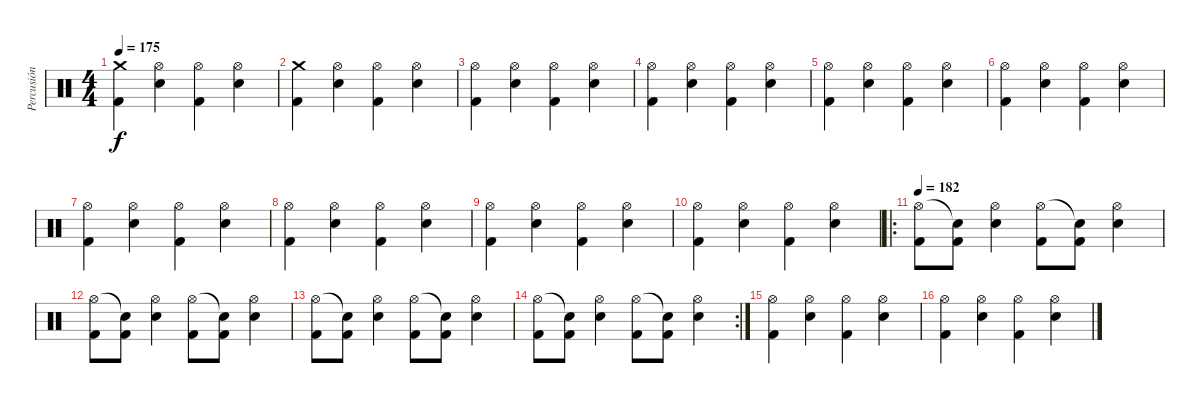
\track ("Percusión" "Percusión") {instrument percussion}
\staff {score}
\articulation defaults
\ts (4 4)
\tempo 175
\clef neutral
\ks c
("Kick (hit) 2" "Crash medium (hit)").4{dy f} ("Electric Snare (hit)" "Hi-Hat (open)").4 ("Kick (hit) 2" "Hi-Hat (open)").4 ("Electric Snare (hit)" "Hi-Hat (open)").4 |
("Kick (hit) 2" "Crash medium (hit)").4 ("Electric Snare (hit)" "Hi-Hat (open)").4 ("Kick (hit) 2" "Hi-Hat (open)").4 ("Electric Snare (hit)" "Hi-Hat (open)").4 |
("Kick (hit) 2" "Hi-Hat (open)").4 ("Electric Snare (hit)" "Hi-Hat (open)").4 ("Kick (hit) 2" "Hi-Hat (open)").4 ("Electric Snare (hit)" "Hi-Hat (open)").4 |
("Kick (hit) 2" "Hi-Hat (open)").4 ("Electric Snare (hit)" "Hi-Hat (open)").4 ("Kick (hit) 2" "Hi-Hat (open)").4 ("Electric Snare (hit)" "Hi-Hat (open)").4 |
("Kick (hit) 2" "Hi-Hat (open)").4 ("Electric Snare (hit)" "Hi-Hat (open)").4 ("Kick (hit) 2" "Hi-Hat (open)").4 ("Electric Snare (hit)" "Hi-Hat (open)").4 |
("Kick (hit) 2" "Hi-Hat (open)").4 ("Electric Snare (hit)" "Hi-Hat (open)").4 ("Kick (hit) 2" "Hi-Hat (open)").4 ("Electric Snare (hit)" "Hi-Hat (open)").4 |
("Kick (hit) 2" "Hi-Hat (open)").4 ("Electric Snare (hit)" "Hi-Hat (open)").4 ("Kick (hit) 2" "Hi-Hat (open)").4 ("Electric Snare (hit)" "Hi-Hat (open)").4 |
("Kick (hit) 2" "Hi-Hat (open)").4 ("Electric Snare (hit)" "Hi-Hat (open)").4 ("Kick (hit) 2" "Hi-Hat (open)").4 ("Electric Snare (hit)" "Hi-Hat (open)").4 |
("Kick (hit) 2" "Hi-Hat (open)").4 ("Electric Snare (hit)" "Hi-Hat (open)").4 ("Kick (hit) 2" "Hi-Hat (open)").4 ("Electric Snare (hit)" "Hi-Hat (open)").4 |
("Kick (hit) 2" "Hi-Hat (open)").4 ("Electric Snare (hit)" "Hi-Hat (open)").4 ("Kick (hit) 2" "Hi-Hat (open)").4 ("Electric Snare (hit)" "Hi-Hat (open)").4 |
\ro
\tempo 182
("Kick (hit) 2" "Hi-Hat (open)").8 ("Kick (hit) 2" "Snare (hit)"{t}).8 ("Electric Snare (hit)" "Hi-Hat (open)").4 ("Kick (hit) 2" "Hi-Hat (open)").8 ("Kick (hit) 2" "Snare (hit)"{t}).8 ("Electric Snare (hit)" "Hi-Hat (open)").4 |
("Kick (hit) 2" "Hi-Hat (open)").8 ("Kick (hit) 2" "Snare (hit)"{t}).8 ("Electric Snare (hit)" "Hi-Hat (open)").4 ("Kick (hit) 2" "Hi-Hat (open)").8 ("Kick (hit) 2" "Snare (hit)"{t}).8 ("Electric Snare (hit)" "Hi-Hat (open)").4 |
("Kick (hit) 2" "Hi-Hat (open)").8 ("Kick (hit) 2" "Snare (hit)"{t}).8 ("Electric Snare (hit)" "Hi-Hat (open)").4 ("Kick (hit) 2" "Hi-Hat (open)").8 ("Kick (hit) 2" "Snare (hit)"{t}).8 ("Electric Snare (hit)" "Hi-Hat (open)").4 |
\rc 2
("Kick (hit) 2" "Hi-Hat (open)").8 ("Kick (hit) 2" "Snare (hit)"{t}).8 ("Electric Snare (hit)" "Hi-Hat (open)").4 ("Kick (hit) 2" "Hi-Hat (open)").8 ("Kick (hit) 2" "Snare (hit)"{t}).8 ("Electric Snare (hit)" "Hi-Hat (open)").4 |
("Kick (hit) 2" "Hi-Hat (open)").4 ("Electric Snare (hit)" "Hi-Hat (open)").4 ("Kick (hit) 2" "Hi-Hat (open)").4 ("Electric Snare (hit)" "Hi-Hat (open)").4 |
("Kick (hit) 2" "Hi-Hat (open)").4 ("Electric Snare (hit)" "Hi-Hat (open)").4 ("Kick (hit) 2" "Hi-Hat (open)").4 ("Electric Snare (hit)" "Hi-Hat (open)").4
